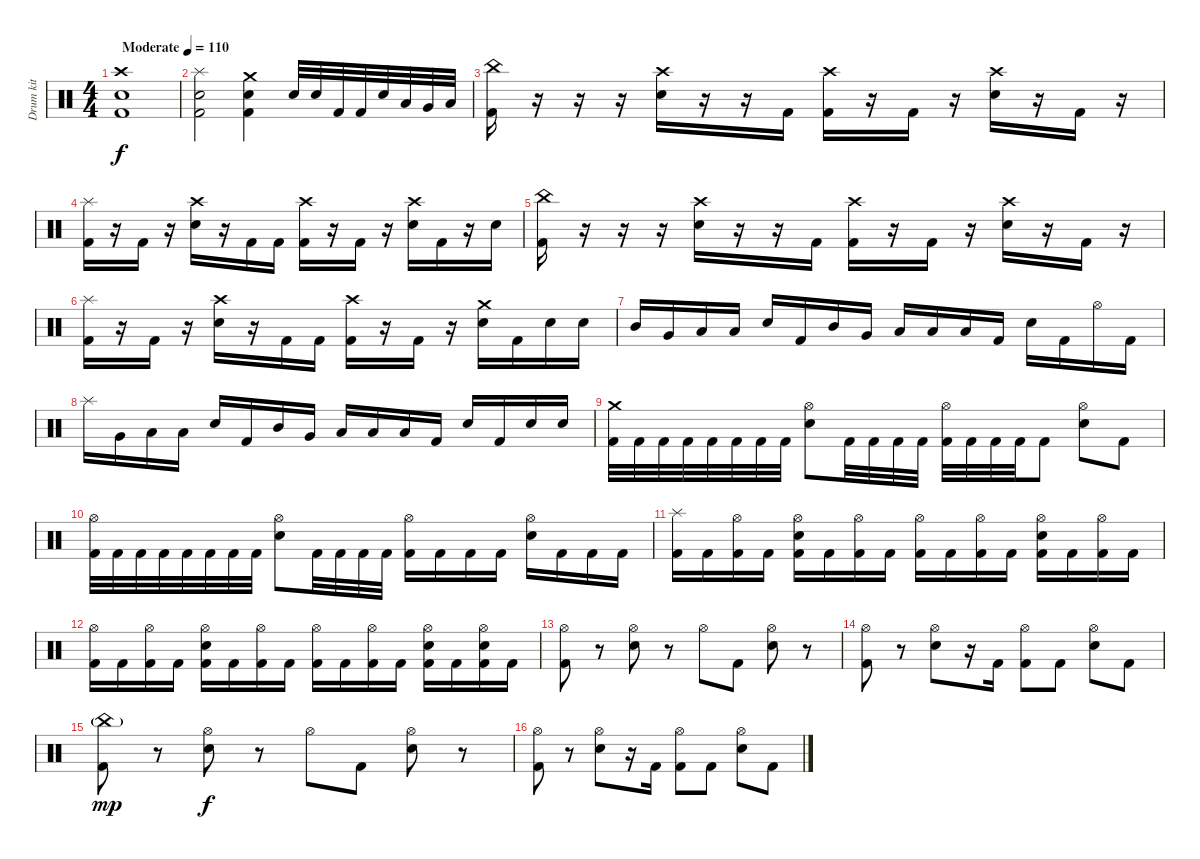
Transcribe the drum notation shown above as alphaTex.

\track ("Drum kit" "Drum kit") {instrument percussion}
\staff {score}
\articulation defaults
\ts (4 4)
\tempo (110 "Moderate")
\clef neutral
\ks c
("Crash high (hit)" "Electric Snare (hit)" "Kick (hit) 2").1{dy f} |
("Splash (hit)" "Electric Snare (hit)" "Kick (hit) 2").2 ("Crash medium (hit)" "Electric Snare (hit)" "Kick (hit) 2").4 "Electric Snare (hit)".32 "Electric Snare (hit)".32 "Kick (hit) 2".32 "Kick (hit) 2".32 "Electric Snare (hit)".32 "Low Tom (hit)".32 "Very Low Tom (hit)".32 "Low Floor Tom (hit)".32 |
("China (hit)" "Kick (hit) 2").16 r.16 r.16 r.16 ("Crash high (hit)" "Electric Snare (hit)").16 r.16 r.16 "Kick (hit) 2".16 ("Crash high (hit)" "Kick (hit) 2").16 r.16 "Kick (hit) 2".16 r.16 ("Crash high (hit)" "Electric Snare (hit)").16 r.16 "Kick (hit) 2".16 r.16 |
("Splash (hit)" "Kick (hit) 2").16 r.16 "Kick (hit) 2".16 r.16 ("Crash high (hit)" "Electric Snare (hit)").16 r.16 "Kick (hit) 2".16 "Kick (hit) 2".16 ("Crash high (hit)" "Kick (hit) 2").16 r.16 "Kick (hit) 2".16 r.16 ("Crash high (hit)" "Electric Snare (hit)").16 "Kick (hit) 2".16 r.16 "Electric Snare (hit)".16 |
("China (hit)" "Kick (hit) 2").16 r.16 r.16 r.16 ("Crash high (hit)" "Electric Snare (hit)").16 r.16 r.16 "Kick (hit) 2".16 ("Crash high (hit)" "Kick (hit) 2").16 r.16 "Kick (hit) 2".16 r.16 ("Crash high (hit)" "Electric Snare (hit)").16 r.16 "Kick (hit) 2".16 r.16 |
("Splash (hit)" "Kick (hit) 2").16 r.16 "Kick (hit) 2".16 r.16 ("Crash high (hit)" "Electric Snare (hit)").16 r.16 "Kick (hit) 2".16 "Kick (hit) 2".16 ("Crash high (hit)" "Kick (hit) 2").16 r.16 "Kick (hit) 2".16 r.16 ("Crash medium (hit)" "Electric Snare (hit)").16 "Kick (hit) 2".16 "Electric Snare (hit)".16 "Electric Snare (hit)".16 |
"Mid Tom (hit)".16 "Very Low Tom (hit)".16 "Low Tom (hit)".16 "Low Floor Tom (hit)".16 "Electric Snare (hit)".16 "Kick (hit) 2".16 "Mid Tom (hit)".16 "Very Low Tom (hit)".16 "Low Tom (hit)".16 "Low Floor Tom (hit)".16 "Low Tom (hit)".16 "Kick (hit) 2".16 "Electric Snare (hit)".16 "Kick (hit) 2".16 "Hi-Hat (open)".16 "Kick (hit) 2".16 |
"Splash (hit)".16 "Very Low Tom (hit)".16 "Low Tom (hit)".16 "Low Floor Tom (hit)".16 "Electric Snare (hit)".16 "Kick (hit) 2".16 "Mid Tom (hit)".16 "Very Low Tom (hit)".16 "Low Tom (hit)".16 "Low Floor Tom (hit)".16 "Low Tom (hit)".16 "Kick (hit) 2".16 "Electric Snare (hit)".16 "Kick (hit) 2".16 "Electric Snare (hit)".16 "Electric Snare (hit)".16 |
("Crash medium (hit)" "Kick (hit) 2").32 "Kick (hit) 2".32 "Kick (hit) 2".32 "Kick (hit) 2".32 "Kick (hit) 2".32 "Kick (hit) 2".32 "Kick (hit) 2".32 "Kick (hit) 2".32 ("Hi-Hat (open)" "Electric Snare (hit)").8 "Kick (hit) 2".32 "Kick (hit) 2".32 "Kick (hit) 2".32 "Kick (hit) 2".32 ("Hi-Hat (open)" "Kick (hit) 2").32 "Kick (hit) 2".32 "Kick (hit) 2".32 "Kick (hit) 2".32 "Kick (hit) 2".8 ("Hi-Hat (open)" "Electric Snare (hit)").8 "Kick (hit) 2".8 |
("Hi-Hat (open)" "Kick (hit) 2").32 "Kick (hit) 2".32 "Kick (hit) 2".32 "Kick (hit) 2".32 "Kick (hit) 2".32 "Kick (hit) 2".32 "Kick (hit) 2".32 "Kick (hit) 2".32 ("Hi-Hat (open)" "Electric Snare (hit)").8 "Kick (hit) 2".32 "Kick (hit) 2".32 "Kick (hit) 2".32 "Kick (hit) 2".32 ("Hi-Hat (open)" "Kick (hit) 2").16 "Kick (hit) 2".16 "Kick (hit) 2".16 "Kick (hit) 2".16 ("Hi-Hat (open)" "Electric Snare (hit)").16 "Kick (hit) 2".16 "Kick (hit) 2".16 "Kick (hit) 2".16 |
("Splash (hit)" "Kick (hit) 2").16 "Kick (hit) 2".16 ("Hi-Hat (open)" "Kick (hit) 2").16 "Kick (hit) 2".16 ("Hi-Hat (open)" "Electric Snare (hit)" "Kick (hit) 2").16 "Kick (hit) 2".16 ("Hi-Hat (open)" "Kick (hit) 2").16 "Kick (hit) 2".16 ("Hi-Hat (open)" "Kick (hit) 2").16 "Kick (hit) 2".16 ("Hi-Hat (open)" "Kick (hit) 2").16 "Kick (hit) 2".16 ("Hi-Hat (open)" "Electric Snare (hit)" "Kick (hit) 2").16 "Kick (hit) 2".16 ("Hi-Hat (open)" "Kick (hit) 2").16 "Kick (hit) 2".16 |
("Hi-Hat (open)" "Kick (hit) 2").16 "Kick (hit) 2".16 ("Hi-Hat (open)" "Kick (hit) 2").16 "Kick (hit) 2".16 ("Hi-Hat (open)" "Electric Snare (hit)" "Kick (hit) 2").16 "Kick (hit) 2".16 ("Hi-Hat (open)" "Kick (hit) 2").16 "Kick (hit) 2".16 ("Hi-Hat (open)" "Kick (hit) 2").16 "Kick (hit) 2".16 ("Hi-Hat (open)" "Kick (hit) 2").16 "Kick (hit) 2".16 ("Hi-Hat (open)" "Electric Snare (hit)" "Kick (hit) 2").16 "Kick (hit) 2".16 ("Hi-Hat (open)" "Electric Snare (hit)" "Kick (hit) 2").16 "Kick (hit) 2".16 |
("Hi-Hat (open)" "Kick (hit) 2").8 r.8 ("Hi-Hat (open)" "Electric Snare (hit)").8 r.8 "Hi-Hat (open)".8 "Kick (hit) 2".8 ("Hi-Hat (open)" "Electric Snare (hit)").8 r.8 |
("Hi-Hat (open)" "Kick (hit) 2").8 r.8 ("Hi-Hat (open)" "Electric Snare (hit)").8 r.16 "Kick (hit) 2".16 ("Hi-Hat (open)" "Kick (hit) 2").8 "Kick (hit) 2".8 ("Hi-Hat (open)" "Electric Snare (hit)").8 "Kick (hit) 2".8 |
("China (hit)"{g} "Kick (hit) 2").8{dy mp} r.8 ("Hi-Hat (open)" "Electric Snare (hit)").8{dy f} r.8 "Hi-Hat (open)".8 "Kick (hit) 2".8 ("Hi-Hat (open)" "Electric Snare (hit)").8 r.8 |
("Hi-Hat (open)" "Kick (hit) 2").8 r.8 ("Hi-Hat (open)" "Electric Snare (hit)").8 r.16 "Kick (hit) 2".16 ("Hi-Hat (open)" "Kick (hit) 2").8 "Kick (hit) 2".8 ("Hi-Hat (open)" "Electric Snare (hit)").8 "Kick (hit) 2".8
